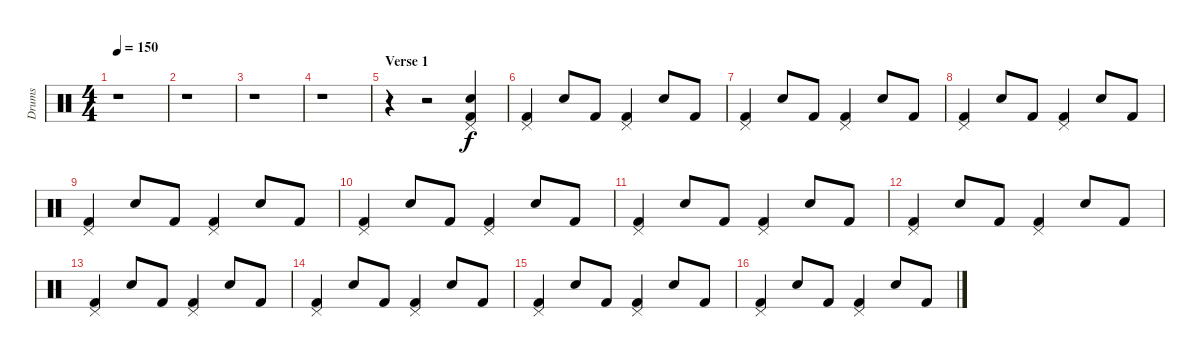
\track ("Drums" "Drums") {instrument percussion}
\staff {score}
\articulation defaults
\ts (4 4)
\tempo 150
\clef neutral
\ks c
r.1{dy f} |
r.1 |
r.1 |
r.1 |
\section ("" "Verse 1")
r.4 r.2 ("Snare (hit) 2" "Kick (hit) 2" "Pedal Hi-Hat (hit)").4 |
("Kick (hit) 2" "Pedal Hi-Hat (hit)").4 "Snare (hit) 2".8 "Kick (hit) 2".8 ("Kick (hit) 2" "Pedal Hi-Hat (hit)").4 "Snare (hit) 2".8 "Kick (hit) 2".8 |
("Kick (hit) 2" "Pedal Hi-Hat (hit)").4 "Snare (hit) 2".8 "Kick (hit) 2".8 ("Kick (hit) 2" "Pedal Hi-Hat (hit)").4 "Snare (hit) 2".8 "Kick (hit) 2".8 |
("Kick (hit) 2" "Pedal Hi-Hat (hit)").4 "Snare (hit) 2".8 "Kick (hit) 2".8 ("Kick (hit) 2" "Pedal Hi-Hat (hit)").4 "Snare (hit) 2".8 "Kick (hit) 2".8 |
("Kick (hit) 2" "Pedal Hi-Hat (hit)").4 "Snare (hit) 2".8 "Kick (hit) 2".8 ("Kick (hit) 2" "Pedal Hi-Hat (hit)").4 "Snare (hit) 2".8 "Kick (hit) 2".8 |
("Kick (hit) 2" "Pedal Hi-Hat (hit)").4 "Snare (hit) 2".8 "Kick (hit) 2".8 ("Kick (hit) 2" "Pedal Hi-Hat (hit)").4 "Snare (hit) 2".8 "Kick (hit) 2".8 |
("Kick (hit) 2" "Pedal Hi-Hat (hit)").4 "Snare (hit) 2".8 "Kick (hit) 2".8 ("Kick (hit) 2" "Pedal Hi-Hat (hit)").4 "Snare (hit) 2".8 "Kick (hit) 2".8 |
("Kick (hit) 2" "Pedal Hi-Hat (hit)").4 "Snare (hit) 2".8 "Kick (hit) 2".8 ("Kick (hit) 2" "Pedal Hi-Hat (hit)").4 "Snare (hit) 2".8 "Kick (hit) 2".8 |
("Kick (hit) 2" "Pedal Hi-Hat (hit)").4 "Snare (hit) 2".8 "Kick (hit) 2".8 ("Kick (hit) 2" "Pedal Hi-Hat (hit)").4 "Snare (hit) 2".8 "Kick (hit) 2".8 |
("Kick (hit) 2" "Pedal Hi-Hat (hit)").4 "Snare (hit) 2".8 "Kick (hit) 2".8 ("Kick (hit) 2" "Pedal Hi-Hat (hit)").4 "Snare (hit) 2".8 "Kick (hit) 2".8 |
("Kick (hit) 2" "Pedal Hi-Hat (hit)").4 "Snare (hit) 2".8 "Kick (hit) 2".8 ("Kick (hit) 2" "Pedal Hi-Hat (hit)").4 "Snare (hit) 2".8 "Kick (hit) 2".8 |
("Kick (hit) 2" "Pedal Hi-Hat (hit)").4 "Snare (hit) 2".8 "Kick (hit) 2".8 ("Kick (hit) 2" "Pedal Hi-Hat (hit)").4 "Snare (hit) 2".8 "Kick (hit) 2".8
